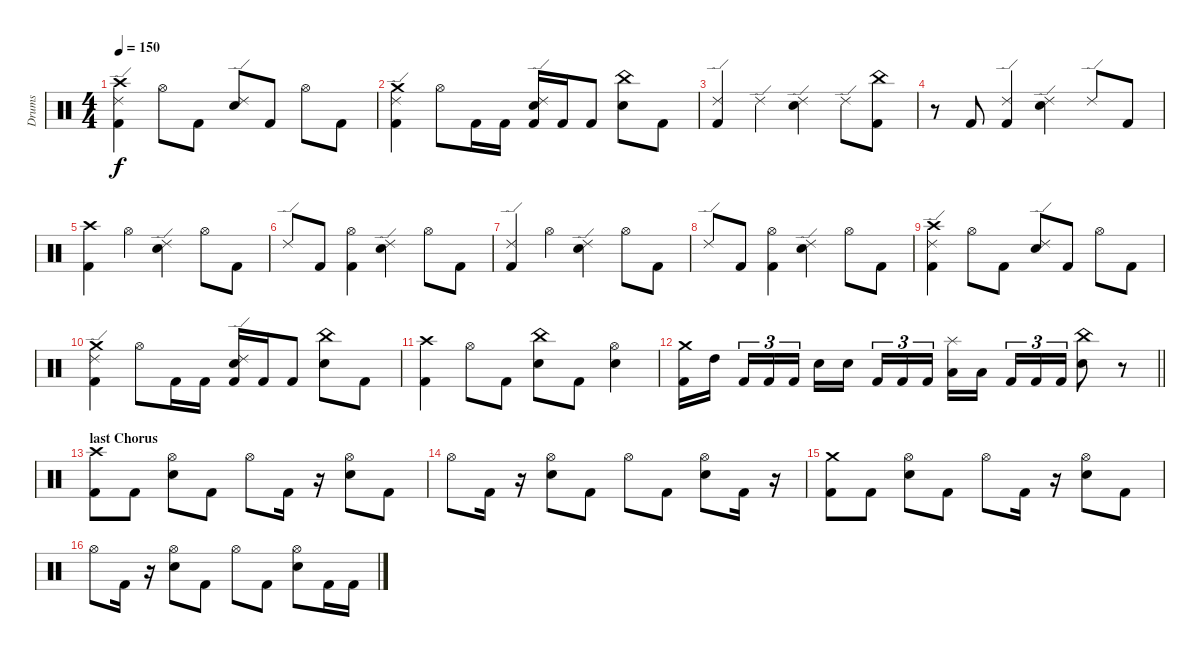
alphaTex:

\track ("Drums" "Drums") {instrument percussion}
\staff {score}
\articulation defaults
\ts (4 4)
\tempo 150
\clef neutral
\ks c
("Crash high (hit)" "Ride (edge) 2" "Kick (hit) 2").4{dy f} "Hi-Hat (open)".8 "Kick (hit) 2".8 ("Ride (edge) 2" "Snare (hit) 2").8 "Kick (hit) 2".8 "Hi-Hat (open)".8 "Kick (hit) 2".8 |
("Crash medium (hit)" "Ride (edge) 2" "Kick (hit) 2").4 "Hi-Hat (open)".8 "Kick (hit) 2".16 "Kick (hit) 2".16 ("Ride (edge) 2" "Snare (hit) 2" "Kick (hit) 2").16 "Kick (hit) 2".16 "Kick (hit) 2".8 ("China (hit)" "Snare (hit) 2").8 "Kick (hit) 2".8 |
("Ride (edge) 2" "Kick (hit) 2").4 "Ride (edge) 2".4 ("Ride (edge) 2" "Snare (hit) 2").4 "Ride (edge) 2".8 ("China (hit)" "Kick (hit) 2").8 |
r.8 "Kick (hit) 2".8 ("Ride (edge) 2" "Kick (hit) 2").4 ("Ride (edge) 2" "Snare (hit) 2").4 "Ride (edge) 2".8 "Kick (hit) 2".8 |
("Crash high (hit)" "Kick (hit) 2").4 "Hi-Hat (open)".4 ("Ride (edge) 2" "Snare (hit) 2").4 "Hi-Hat (open)".8 "Kick (hit) 2".8 |
"Ride (edge) 2".8 "Kick (hit) 2".8 ("Hi-Hat (open)" "Kick (hit) 2").4 ("Ride (edge) 2" "Snare (hit) 2").4 "Hi-Hat (open)".8 "Kick (hit) 2".8 |
("Ride (edge) 2" "Kick (hit) 2").4 "Hi-Hat (open)".4 ("Ride (edge) 2" "Snare (hit) 2").4 "Hi-Hat (open)".8 "Kick (hit) 2".8 |
"Ride (edge) 2".8 "Kick (hit) 2".8 ("Hi-Hat (open)" "Kick (hit) 2").4 ("Ride (edge) 2" "Snare (hit) 2").4 "Hi-Hat (open)".8 "Kick (hit) 2".8 |
("Crash high (hit)" "Ride (edge) 2" "Kick (hit) 2").4 "Hi-Hat (open)".8 "Kick (hit) 2".8 ("Ride (edge) 2" "Snare (hit) 2").8 "Kick (hit) 2".8 "Hi-Hat (open)".8 "Kick (hit) 2".8 |
("Crash medium (hit)" "Ride (edge) 2" "Kick (hit) 2").4 "Hi-Hat (open)".8 "Kick (hit) 2".16 "Kick (hit) 2".16 ("Ride (edge) 2" "Snare (hit) 2" "Kick (hit) 2").16 "Kick (hit) 2".16 "Kick (hit) 2".8 ("China (hit)" "Snare (hit) 2").8 "Kick (hit) 2".8 |
("Crash high (hit)" "Kick (hit) 2").4 "Hi-Hat (open)".8 "Kick (hit) 2".8 ("China (hit)" "Snare (hit) 2").8 "Kick (hit) 2".8 ("Hi-Hat (open)" "Snare (hit) 2").4 |
\barLineRight lightlight
("Crash medium (hit)" "Kick (hit) 2").16 "High Tom (hit)".16{beam splitsecondary} "Kick (hit) 2".16{tu (3 2)} "Kick (hit) 2".16{tu (3 2)} "Kick (hit) 2".16{tu (3 2)} "Snare (hit) 2".16 "Snare (hit) 2".16{beam splitsecondary} "Kick (hit) 2".16{tu (3 2)} "Kick (hit) 2".16{tu (3 2)} "Kick (hit) 2".16{tu (3 2)} ("Splash (hit)" "Low Tom (hit)").16 "Low Tom (hit)".16{beam splitsecondary} "Kick (hit) 2".16{tu (3 2)} "Kick (hit) 2".16{tu (3 2)} "Kick (hit) 2".16{tu (3 2)} ("China (hit)" "Snare (hit) 2").8 r.8 |
\section ("" "last Chorus")
("Crash high (hit)" "Kick (hit) 2").8 "Kick (hit) 2".8 ("Hi-Hat (open)" "Snare (hit) 2").8 "Kick (hit) 2".8 "Hi-Hat (open)".8 "Kick (hit) 2".16 r.16 ("Hi-Hat (open)" "Snare (hit) 2").8 "Kick (hit) 2".8 |
"Hi-Hat (open)".8 "Kick (hit) 2".16 r.16 ("Hi-Hat (open)" "Snare (hit) 2").8 "Kick (hit) 2".8 "Hi-Hat (open)".8 "Kick (hit) 2".8 ("Hi-Hat (open)" "Snare (hit) 2").8 "Kick (hit) 2".16 r.16 |
("Crash medium (hit)" "Kick (hit) 2").8 "Kick (hit) 2".8 ("Hi-Hat (open)" "Snare (hit) 2").8 "Kick (hit) 2".8 "Hi-Hat (open)".8 "Kick (hit) 2".16 r.16 ("Hi-Hat (open)" "Snare (hit) 2").8 "Kick (hit) 2".8 |
"Hi-Hat (open)".8 "Kick (hit) 2".16 r.16 ("Hi-Hat (open)" "Snare (hit) 2").8 "Kick (hit) 2".8 "Hi-Hat (open)".8 "Kick (hit) 2".8 ("Hi-Hat (open)" "Snare (hit) 2").8 "Kick (hit) 2".16 "Kick (hit) 2".16
